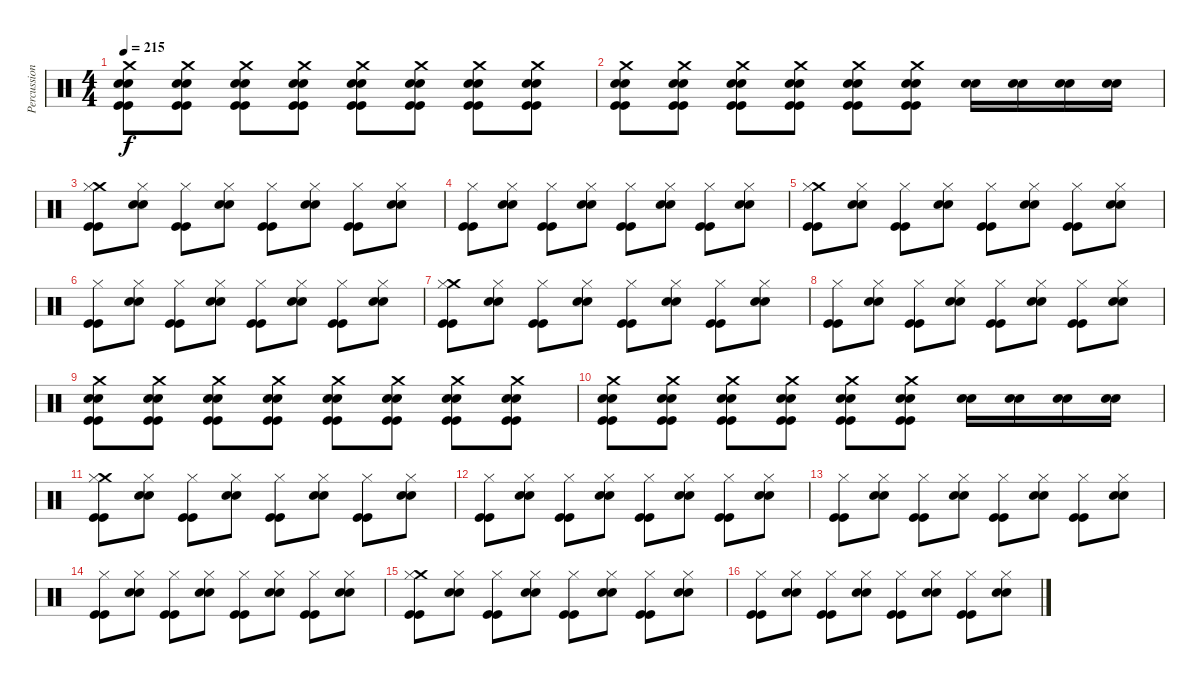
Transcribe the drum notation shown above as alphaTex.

\track ("Percussion" "Percussion") {instrument percussion}
\staff {score}
\articulation defaults
\ts (4 4)
\tempo 215
\clef neutral
\ks c
("Snare (hit) 2" "Snare (hit) 2" "Kick (hit)" "Kick (hit)" "Crash medium (hit)").8{dy f} ("Snare (hit) 2" "Snare (hit) 2" "Kick (hit)" "Kick (hit)" "Crash medium (hit)").8 ("Snare (hit) 2" "Snare (hit) 2" "Kick (hit)" "Kick (hit)" "Crash medium (hit)").8 ("Snare (hit) 2" "Snare (hit) 2" "Kick (hit)" "Kick (hit)" "Crash medium (hit)").8 ("Snare (hit) 2" "Snare (hit) 2" "Kick (hit)" "Kick (hit)" "Crash medium (hit)").8 ("Snare (hit) 2" "Snare (hit) 2" "Kick (hit)" "Kick (hit)" "Crash medium (hit)").8 ("Snare (hit) 2" "Snare (hit) 2" "Kick (hit)" "Kick (hit)" "Crash medium (hit)").8 ("Snare (hit) 2" "Snare (hit) 2" "Kick (hit)" "Kick (hit)" "Crash medium (hit)").8 |
("Snare (hit) 2" "Snare (hit) 2" "Kick (hit)" "Kick (hit)" "Crash medium (hit)").8 ("Snare (hit) 2" "Snare (hit) 2" "Kick (hit)" "Kick (hit)" "Crash medium (hit)").8 ("Snare (hit) 2" "Snare (hit) 2" "Kick (hit)" "Kick (hit)" "Crash medium (hit)").8 ("Snare (hit) 2" "Snare (hit) 2" "Kick (hit)" "Kick (hit)" "Crash medium (hit)").8 ("Snare (hit) 2" "Snare (hit) 2" "Kick (hit)" "Kick (hit)" "Crash medium (hit)").8 ("Snare (hit) 2" "Snare (hit) 2" "Kick (hit)" "Kick (hit)" "Crash medium (hit)").8 ("Snare (hit) 2" "Snare (hit) 2").16 ("Snare (hit) 2" "Snare (hit) 2").16 ("Snare (hit) 2" "Snare (hit) 2").16 ("Snare (hit) 2" "Snare (hit) 2").16 |
("Crash medium (hit)" "Kick (hit)" "Kick (hit)" "Hi-Hat (closed)").8 ("Snare (hit) 2" "Snare (hit) 2" "Hi-Hat (closed)").8 ("Kick (hit)" "Kick (hit)" "Hi-Hat (closed)").8 ("Snare (hit) 2" "Snare (hit) 2" "Hi-Hat (closed)").8 ("Kick (hit)" "Kick (hit)" "Hi-Hat (closed)").8 ("Snare (hit) 2" "Snare (hit) 2" "Hi-Hat (closed)").8 ("Kick (hit)" "Kick (hit)" "Hi-Hat (closed)").8 ("Snare (hit) 2" "Snare (hit) 2" "Hi-Hat (closed)").8 |
("Kick (hit)" "Kick (hit)" "Hi-Hat (closed)").8 ("Snare (hit) 2" "Snare (hit) 2" "Hi-Hat (closed)").8 ("Kick (hit)" "Kick (hit)" "Hi-Hat (closed)").8 ("Snare (hit) 2" "Snare (hit) 2" "Hi-Hat (closed)").8 ("Kick (hit)" "Kick (hit)" "Hi-Hat (closed)").8 ("Snare (hit) 2" "Snare (hit) 2" "Hi-Hat (closed)").8 ("Kick (hit)" "Kick (hit)" "Hi-Hat (closed)").8 ("Snare (hit) 2" "Snare (hit) 2" "Hi-Hat (closed)").8 |
("Crash medium (hit)" "Kick (hit)" "Kick (hit)" "Hi-Hat (closed)").8 ("Snare (hit) 2" "Snare (hit) 2" "Hi-Hat (closed)").8 ("Kick (hit)" "Kick (hit)" "Hi-Hat (closed)").8 ("Snare (hit) 2" "Snare (hit) 2" "Hi-Hat (closed)").8 ("Kick (hit)" "Kick (hit)" "Hi-Hat (closed)").8 ("Snare (hit) 2" "Snare (hit) 2" "Hi-Hat (closed)").8 ("Kick (hit)" "Kick (hit)" "Hi-Hat (closed)").8 ("Snare (hit) 2" "Snare (hit) 2" "Hi-Hat (closed)").8 |
("Kick (hit)" "Kick (hit)" "Hi-Hat (closed)").8 ("Snare (hit) 2" "Snare (hit) 2" "Hi-Hat (closed)").8 ("Kick (hit)" "Kick (hit)" "Hi-Hat (closed)").8 ("Snare (hit) 2" "Snare (hit) 2" "Hi-Hat (closed)").8 ("Kick (hit)" "Kick (hit)" "Hi-Hat (closed)").8 ("Snare (hit) 2" "Snare (hit) 2" "Hi-Hat (closed)").8 ("Kick (hit)" "Kick (hit)" "Hi-Hat (closed)").8 ("Snare (hit) 2" "Snare (hit) 2" "Hi-Hat (closed)").8 |
("Crash medium (hit)" "Kick (hit)" "Kick (hit)" "Hi-Hat (closed)").8 ("Snare (hit) 2" "Snare (hit) 2" "Hi-Hat (closed)").8 ("Kick (hit)" "Kick (hit)" "Hi-Hat (closed)").8 ("Snare (hit) 2" "Snare (hit) 2" "Hi-Hat (closed)").8 ("Kick (hit)" "Kick (hit)" "Hi-Hat (closed)").8 ("Snare (hit) 2" "Snare (hit) 2" "Hi-Hat (closed)").8 ("Kick (hit)" "Kick (hit)" "Hi-Hat (closed)").8 ("Snare (hit) 2" "Snare (hit) 2" "Hi-Hat (closed)").8 |
("Kick (hit)" "Kick (hit)" "Hi-Hat (closed)").8 ("Snare (hit) 2" "Snare (hit) 2" "Hi-Hat (closed)").8 ("Kick (hit)" "Kick (hit)" "Hi-Hat (closed)").8 ("Snare (hit) 2" "Snare (hit) 2" "Hi-Hat (closed)").8 ("Kick (hit)" "Kick (hit)" "Hi-Hat (closed)").8 ("Snare (hit) 2" "Snare (hit) 2" "Hi-Hat (closed)").8 ("Kick (hit)" "Kick (hit)" "Hi-Hat (closed)").8 ("Snare (hit) 2" "Snare (hit) 2" "Hi-Hat (closed)").8 |
("Snare (hit) 2" "Snare (hit) 2" "Kick (hit)" "Kick (hit)" "Crash medium (hit)").8 ("Snare (hit) 2" "Snare (hit) 2" "Kick (hit)" "Kick (hit)" "Crash medium (hit)").8 ("Snare (hit) 2" "Snare (hit) 2" "Kick (hit)" "Kick (hit)" "Crash medium (hit)").8 ("Snare (hit) 2" "Snare (hit) 2" "Kick (hit)" "Kick (hit)" "Crash medium (hit)").8 ("Snare (hit) 2" "Snare (hit) 2" "Kick (hit)" "Kick (hit)" "Crash medium (hit)").8 ("Snare (hit) 2" "Snare (hit) 2" "Kick (hit)" "Kick (hit)" "Crash medium (hit)").8 ("Snare (hit) 2" "Snare (hit) 2" "Kick (hit)" "Kick (hit)" "Crash medium (hit)").8 ("Snare (hit) 2" "Snare (hit) 2" "Kick (hit)" "Kick (hit)" "Crash medium (hit)").8 |
("Snare (hit) 2" "Snare (hit) 2" "Kick (hit)" "Kick (hit)" "Crash medium (hit)").8 ("Snare (hit) 2" "Snare (hit) 2" "Kick (hit)" "Kick (hit)" "Crash medium (hit)").8 ("Snare (hit) 2" "Snare (hit) 2" "Kick (hit)" "Kick (hit)" "Crash medium (hit)").8 ("Snare (hit) 2" "Snare (hit) 2" "Kick (hit)" "Kick (hit)" "Crash medium (hit)").8 ("Snare (hit) 2" "Snare (hit) 2" "Kick (hit)" "Kick (hit)" "Crash medium (hit)").8 ("Snare (hit) 2" "Snare (hit) 2" "Kick (hit)" "Kick (hit)" "Crash medium (hit)").8 ("Snare (hit) 2" "Snare (hit) 2").16 ("Snare (hit) 2" "Snare (hit) 2").16 ("Snare (hit) 2" "Snare (hit) 2").16 ("Snare (hit) 2" "Snare (hit) 2").16 |
("Crash medium (hit)" "Kick (hit)" "Kick (hit)" "Hi-Hat (closed)").8 ("Snare (hit) 2" "Snare (hit) 2" "Hi-Hat (closed)").8 ("Kick (hit)" "Kick (hit)" "Hi-Hat (closed)").8 ("Snare (hit) 2" "Snare (hit) 2" "Hi-Hat (closed)").8 ("Kick (hit)" "Kick (hit)" "Hi-Hat (closed)").8 ("Snare (hit) 2" "Snare (hit) 2" "Hi-Hat (closed)").8 ("Kick (hit)" "Kick (hit)" "Hi-Hat (closed)").8 ("Snare (hit) 2" "Snare (hit) 2" "Hi-Hat (closed)").8 |
("Kick (hit)" "Kick (hit)" "Hi-Hat (closed)").8 ("Snare (hit) 2" "Snare (hit) 2" "Hi-Hat (closed)").8 ("Kick (hit)" "Kick (hit)" "Hi-Hat (closed)").8 ("Snare (hit) 2" "Snare (hit) 2" "Hi-Hat (closed)").8 ("Kick (hit)" "Kick (hit)" "Hi-Hat (closed)").8 ("Snare (hit) 2" "Snare (hit) 2" "Hi-Hat (closed)").8 ("Kick (hit)" "Kick (hit)" "Hi-Hat (closed)").8 ("Snare (hit) 2" "Snare (hit) 2" "Hi-Hat (closed)").8 |
("Kick (hit)" "Kick (hit)" "Hi-Hat (closed)").8 ("Snare (hit) 2" "Snare (hit) 2" "Hi-Hat (closed)").8 ("Kick (hit)" "Kick (hit)" "Hi-Hat (closed)").8 ("Snare (hit) 2" "Snare (hit) 2" "Hi-Hat (closed)").8 ("Kick (hit)" "Kick (hit)" "Hi-Hat (closed)").8 ("Snare (hit) 2" "Snare (hit) 2" "Hi-Hat (closed)").8 ("Kick (hit)" "Kick (hit)" "Hi-Hat (closed)").8 ("Snare (hit) 2" "Snare (hit) 2" "Hi-Hat (closed)").8 |
("Kick (hit)" "Kick (hit)" "Hi-Hat (closed)").8 ("Snare (hit) 2" "Snare (hit) 2" "Hi-Hat (closed)").8 ("Kick (hit)" "Kick (hit)" "Hi-Hat (closed)").8 ("Snare (hit) 2" "Snare (hit) 2" "Hi-Hat (closed)").8 ("Kick (hit)" "Kick (hit)" "Hi-Hat (closed)").8 ("Snare (hit) 2" "Snare (hit) 2" "Hi-Hat (closed)").8 ("Kick (hit)" "Kick (hit)" "Hi-Hat (closed)").8 ("Snare (hit) 2" "Snare (hit) 2" "Hi-Hat (closed)").8 |
("Crash medium (hit)" "Kick (hit)" "Kick (hit)" "Hi-Hat (closed)").8 ("Snare (hit) 2" "Snare (hit) 2" "Hi-Hat (closed)").8 ("Kick (hit)" "Kick (hit)" "Hi-Hat (closed)").8 ("Snare (hit) 2" "Snare (hit) 2" "Hi-Hat (closed)").8 ("Kick (hit)" "Kick (hit)" "Hi-Hat (closed)").8 ("Snare (hit) 2" "Snare (hit) 2" "Hi-Hat (closed)").8 ("Kick (hit)" "Kick (hit)" "Hi-Hat (closed)").8 ("Snare (hit) 2" "Snare (hit) 2" "Hi-Hat (closed)").8 |
("Kick (hit)" "Kick (hit)" "Hi-Hat (closed)").8 ("Snare (hit) 2" "Snare (hit) 2" "Hi-Hat (closed)").8 ("Kick (hit)" "Kick (hit)" "Hi-Hat (closed)").8 ("Snare (hit) 2" "Snare (hit) 2" "Hi-Hat (closed)").8 ("Kick (hit)" "Kick (hit)" "Hi-Hat (closed)").8 ("Snare (hit) 2" "Snare (hit) 2" "Hi-Hat (closed)").8 ("Kick (hit)" "Kick (hit)" "Hi-Hat (closed)").8 ("Snare (hit) 2" "Snare (hit) 2" "Hi-Hat (closed)").8
